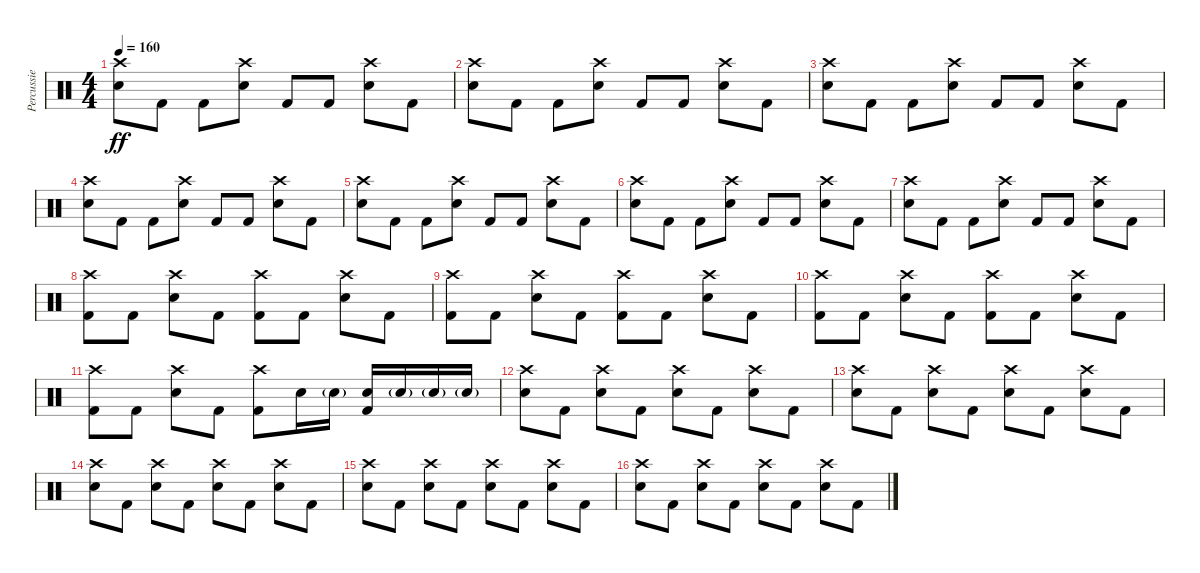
\track ("Percussie" "Percussie") {instrument percussion}
\staff {score}
\articulation defaults
\ts (4 4)
\tempo 160
\clef neutral
\ks c
("Crash high (hit)" "Snare (hit) 2").8{dy ff} "Kick (hit) 2".8 "Kick (hit) 2".8 ("Crash high (hit)" "Snare (hit) 2").8 "Kick (hit) 2".8 "Kick (hit) 2".8 ("Crash high (hit)" "Snare (hit) 2").8 "Kick (hit) 2".8 |
("Crash high (hit)" "Snare (hit) 2").8 "Kick (hit) 2".8 "Kick (hit) 2".8 ("Crash high (hit)" "Snare (hit) 2").8 "Kick (hit) 2".8 "Kick (hit) 2".8 ("Crash high (hit)" "Snare (hit) 2").8 "Kick (hit) 2".8 |
("Crash high (hit)" "Snare (hit) 2").8 "Kick (hit) 2".8 "Kick (hit) 2".8 ("Crash high (hit)" "Snare (hit) 2").8 "Kick (hit) 2".8 "Kick (hit) 2".8 ("Crash high (hit)" "Snare (hit) 2").8 "Kick (hit) 2".8 |
("Crash high (hit)" "Snare (hit) 2").8 "Kick (hit) 2".8 "Kick (hit) 2".8 ("Crash high (hit)" "Snare (hit) 2").8 "Kick (hit) 2".8 "Kick (hit) 2".8 ("Crash high (hit)" "Snare (hit) 2").8 "Kick (hit) 2".8 |
("Crash high (hit)" "Snare (hit) 2").8 "Kick (hit) 2".8 "Kick (hit) 2".8 ("Crash high (hit)" "Snare (hit) 2").8 "Kick (hit) 2".8 "Kick (hit) 2".8 ("Crash high (hit)" "Snare (hit) 2").8 "Kick (hit) 2".8 |
("Crash high (hit)" "Snare (hit) 2").8 "Kick (hit) 2".8 "Kick (hit) 2".8 ("Crash high (hit)" "Snare (hit) 2").8 "Kick (hit) 2".8 "Kick (hit) 2".8 ("Crash high (hit)" "Snare (hit) 2").8 "Kick (hit) 2".8 |
("Crash high (hit)" "Snare (hit) 2").8 "Kick (hit) 2".8 "Kick (hit) 2".8 ("Crash high (hit)" "Snare (hit) 2").8 "Kick (hit) 2".8 "Kick (hit) 2".8 ("Crash high (hit)" "Snare (hit) 2").8 "Kick (hit) 2".8 |
("Crash high (hit)" "Kick (hit) 2").8 "Kick (hit) 2".8 ("Crash high (hit)" "Snare (hit) 2").8 "Kick (hit) 2".8 ("Crash high (hit)" "Kick (hit) 2").8 "Kick (hit) 2".8 ("Crash high (hit)" "Snare (hit) 2").8 "Kick (hit) 2".8 |
("Crash high (hit)" "Kick (hit) 2").8 "Kick (hit) 2".8 ("Crash high (hit)" "Snare (hit) 2").8 "Kick (hit) 2".8 ("Crash high (hit)" "Kick (hit) 2").8 "Kick (hit) 2".8 ("Crash high (hit)" "Snare (hit) 2").8 "Kick (hit) 2".8 |
("Crash high (hit)" "Kick (hit) 2").8 "Kick (hit) 2".8 ("Crash high (hit)" "Snare (hit) 2").8 "Kick (hit) 2".8 ("Crash high (hit)" "Kick (hit) 2").8 "Kick (hit) 2".8 ("Crash high (hit)" "Snare (hit) 2").8 "Kick (hit) 2".8 |
("Crash high (hit)" "Kick (hit) 2").8 "Kick (hit) 2".8 ("Crash high (hit)" "Snare (hit) 2").8 "Kick (hit) 2".8 ("Crash high (hit)" "Kick (hit) 2").8 "Snare (hit) 2".16 "Snare (hit) 2"{g}.16 ("Snare (hit) 2" "Kick (hit) 2").16 "Snare (hit) 2"{g}.16 "Snare (hit) 2"{g}.16 "Snare (hit) 2"{g}.16 |
("Crash high (hit)" "Snare (hit) 2").8 "Kick (hit) 2".8 ("Crash high (hit)" "Snare (hit) 2").8 "Kick (hit) 2".8 ("Crash high (hit)" "Snare (hit) 2").8 "Kick (hit) 2".8 ("Crash high (hit)" "Snare (hit) 2").8 "Kick (hit) 2".8 |
("Crash high (hit)" "Snare (hit) 2").8 "Kick (hit) 2".8 ("Crash high (hit)" "Snare (hit) 2").8 "Kick (hit) 2".8 ("Crash high (hit)" "Snare (hit) 2").8 "Kick (hit) 2".8 ("Crash high (hit)" "Snare (hit) 2").8 "Kick (hit) 2".8 |
("Crash high (hit)" "Snare (hit) 2").8 "Kick (hit) 2".8 ("Crash high (hit)" "Snare (hit) 2").8 "Kick (hit) 2".8 ("Crash high (hit)" "Snare (hit) 2").8 "Kick (hit) 2".8 ("Crash high (hit)" "Snare (hit) 2").8 "Kick (hit) 2".8 |
("Crash high (hit)" "Snare (hit) 2").8 "Kick (hit) 2".8 ("Crash high (hit)" "Snare (hit) 2").8 "Kick (hit) 2".8 ("Crash high (hit)" "Snare (hit) 2").8 "Kick (hit) 2".8 ("Crash high (hit)" "Snare (hit) 2").8 "Kick (hit) 2".8 |
("Crash high (hit)" "Snare (hit) 2").8 "Kick (hit) 2".8 ("Crash high (hit)" "Snare (hit) 2").8 "Kick (hit) 2".8 ("Crash high (hit)" "Snare (hit) 2").8 "Kick (hit) 2".8 ("Crash high (hit)" "Snare (hit) 2").8 "Kick (hit) 2".8
